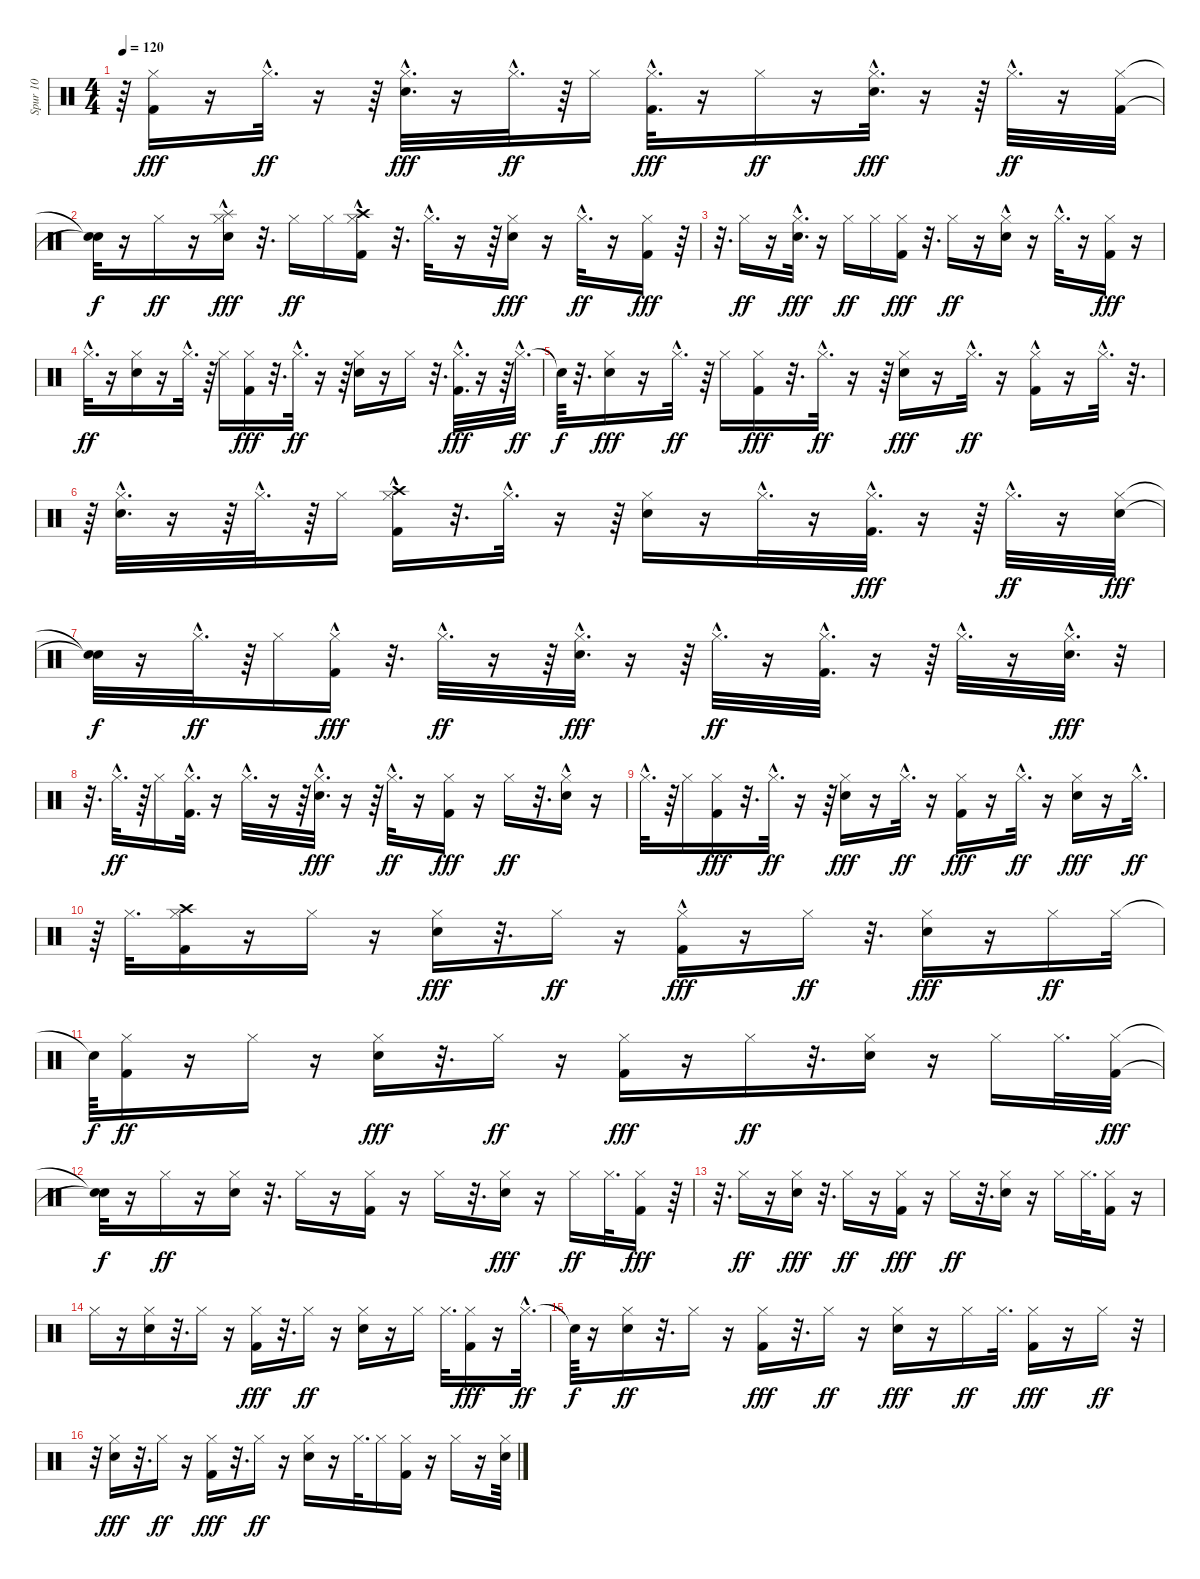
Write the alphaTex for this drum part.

\track ("Spur 10" "Spur 10") {instrument percussion}
\staff {score}
\articulation defaults
\ts (4 4)
\tempo 120
\clef neutral
\ks c
r.64{dy ff} ("Hi-Hat (closed)" "Kick (hit) 2").16{dy fff} r.16 "Hi-Hat (closed)"{hac}.32{d dy ff} r.16 r.64 ("Hi-Hat (closed)"{hac} "Snare (hit) 2"{hac}).32{d dy fff} r.16 "Hi-Hat (closed)"{hac}.32{d dy ff} r.64 "Hi-Hat (closed)".16 ("Hi-Hat (closed)"{hac} "Kick (hit) 2"{hac}).32{d dy fff} r.16 "Hi-Hat (closed)".16{dy ff} r.16 ("Hi-Hat (closed)"{hac} "Snare (hit) 2"{hac}).32{d dy fff} r.16 r.64 "Hi-Hat (closed)"{hac}.32{d dy ff} r.16 ("Kick (hit) 2" "Hi-Hat (closed)").32 |
("Snare (hit)"{t} "Snare (hit)"{t}).32{dy f} r.16 "Hi-Hat (closed)".16{dy ff} r.16 ("Splash (hit)"{hac} "Hi-Hat (closed)" "Snare (hit) 2").16{dy fff} r.32{d} "Hi-Hat (closed)".16{dy ff} "Hi-Hat (closed)".16 ("Kick (hit) 2" "Hi-Hat (closed)" "Crash high (hit)"{hac}).16 r.32{d} "Hi-Hat (closed)"{hac}.32{d} r.16 r.64 ("Hi-Hat (closed)" "Snare (hit) 2").16{dy fff} r.16 "Hi-Hat (closed)"{hac}.32{d dy ff} r.16 ("Hi-Hat (closed)" "Kick (hit) 2").16{dy fff} r.64 |
r.32{d} "Hi-Hat (closed)".16{dy ff} r.16 ("Hi-Hat (closed)"{hac} "Snare (hit) 2"{hac}).32{d dy fff} r.16 "Hi-Hat (closed)".16{dy ff} "Hi-Hat (closed)".16 ("Hi-Hat (closed)" "Kick (hit) 2").16{dy fff} r.32{d} "Hi-Hat (closed)".16{dy ff} r.16 ("Snare (hit) 2" "Hi-Hat (closed)"{hac}).16 r.16 "Hi-Hat (closed)"{hac}.32{d} r.16 ("Hi-Hat (closed)" "Kick (hit) 2").16{dy fff} r.16 |
"Hi-Hat (closed)"{hac}.32{d dy ff} r.16 ("Snare (hit) 2" "Hi-Hat (closed)").16 r.16 "Hi-Hat (closed)"{hac}.32{d} r.64 "Hi-Hat (closed)".16 ("Hi-Hat (closed)" "Kick (hit) 2").16{dy fff} r.32{d} "Hi-Hat (closed)"{hac}.32{d dy ff} r.16 r.64 ("Snare (hit) 2" "Hi-Hat (closed)").16 r.16 "Hi-Hat (closed)".16 r.32{d} ("Hi-Hat (closed)"{hac} "Kick (hit) 2"{hac}).32{d dy fff} r.16 r.64 "Hi-Hat (closed)"{hac}.32{d dy ff} |
"Snare (hit)"{t}.64{dy f} r.32{d} ("Hi-Hat (closed)" "Snare (hit) 2").16{dy fff} r.16 "Hi-Hat (closed)"{hac}.32{d dy ff} r.64 "Hi-Hat (closed)".16 ("Hi-Hat (closed)" "Kick (hit) 2").16{dy fff} r.32{d} "Hi-Hat (closed)"{hac}.32{d dy ff} r.16 r.64 ("Hi-Hat (closed)" "Snare (hit) 2").16{dy fff} r.16 "Hi-Hat (closed)"{hac}.32{d dy ff} r.16 ("Kick (hit) 2"{hac} "Hi-Hat (closed)").16 r.16 "Hi-Hat (closed)"{hac}.32{d} r.32{d} |
r.64 ("Snare (hit) 2"{hac} "Hi-Hat (closed)"{hac}).32{d} r.16 r.64 "Hi-Hat (closed)"{hac}.32{d} r.64 "Hi-Hat (closed)".16 ("Kick (hit) 2"{hac} "Hi-Hat (closed)" "Crash high (hit)").16 r.32{d} "Hi-Hat (closed)"{hac}.32{d} r.16 r.64 ("Snare (hit) 2" "Hi-Hat (closed)").16 r.16 "Hi-Hat (closed)"{hac}.32{d} r.16 ("Hi-Hat (closed)"{hac} "Kick (hit) 2"{hac}).32{d dy fff} r.16 r.64 "Hi-Hat (closed)"{hac}.32{d dy ff} r.16 ("Hi-Hat (closed)" "Snare (hit) 2").32{dy fff} |
("Snare (hit)"{t} "Snare (hit)"{t}).32{dy f} r.16 "Hi-Hat (closed)"{hac}.32{d dy ff} r.64 "Hi-Hat (closed)".16 ("Hi-Hat (closed)"{hac} "Kick (hit) 2").16{dy fff} r.32{d} "Hi-Hat (closed)"{hac}.32{d dy ff} r.16 r.64 ("Hi-Hat (closed)"{hac} "Snare (hit) 2"{hac}).32{d dy fff} r.16 r.64 "Hi-Hat (closed)"{hac}.32{d dy ff} r.16 ("Kick (hit) 2"{hac} "Hi-Hat (closed)"{hac}).32{d} r.16 r.64 "Hi-Hat (closed)"{hac}.32{d} r.16 ("Hi-Hat (closed)"{hac} "Snare (hit) 2"{hac}).32{d dy fff} r.32 |
r.32{d} "Hi-Hat (closed)"{hac}.32{d dy ff} r.64 "Hi-Hat (closed)".16 ("Kick (hit) 2"{hac} "Hi-Hat (closed)"{hac}).32{d} r.16 "Hi-Hat (closed)"{hac}.32{d} r.16 r.64 ("Hi-Hat (closed)"{hac} "Snare (hit) 2"{hac}).32{d dy fff} r.16 r.64 "Hi-Hat (closed)"{hac}.32{d dy ff} r.16 ("Hi-Hat (closed)" "Kick (hit) 2").16{dy fff} r.16 "Hi-Hat (closed)".16{dy ff} r.32{d} ("Snare (hit) 2"{hac} "Hi-Hat (closed)").16 r.16 |
"Hi-Hat (closed)"{hac}.32{d} r.64 "Hi-Hat (closed)".16 ("Hi-Hat (closed)" "Kick (hit) 2").16{dy fff} r.32{d} "Hi-Hat (closed)"{hac}.32{d dy ff} r.16 r.64 ("Hi-Hat (closed)" "Snare (hit) 2").16{dy fff} r.16 "Hi-Hat (closed)"{hac}.32{d dy ff} r.16 ("Hi-Hat (closed)" "Kick (hit) 2").16{dy fff} r.16 "Hi-Hat (closed)"{hac}.32{d dy ff} r.16 ("Hi-Hat (closed)" "Snare (hit) 2").16{dy fff} r.16 "Hi-Hat (closed)"{hac}.32{d dy ff} |
r.64 "Hi-Hat (closed)".32{d} ("Hi-Hat (closed)" "Kick (hit) 2" "Crash high (hit)").16 r.16 "Hi-Hat (closed)".16 r.16 ("Hi-Hat (closed)" "Snare (hit) 2").16{dy fff} r.32{d} "Hi-Hat (closed)".16{dy ff} r.16 ("Hi-Hat (closed)"{hac} "Kick (hit) 2").16{dy fff} r.16 "Hi-Hat (closed)".16{dy ff} r.32{d} ("Hi-Hat (closed)" "Snare (hit) 2").16{dy fff} r.16 "Hi-Hat (closed)".16{dy ff} "Hi-Hat (closed)".32 |
"Snare (hit)"{t}.64{dy f} ("Kick (hit) 2" "Hi-Hat (closed)").16{dy ff} r.16 "Hi-Hat (closed)".16 r.16 ("Hi-Hat (closed)" "Snare (hit) 2").16{dy fff} r.32{d} "Hi-Hat (closed)".16{dy ff} r.16 ("Hi-Hat (closed)" "Kick (hit) 2").16{dy fff} r.16 "Hi-Hat (closed)".16{dy ff} r.32{d} ("Snare (hit) 2" "Hi-Hat (closed)").16 r.16 "Hi-Hat (closed)".16 "Hi-Hat (closed)".32{d} ("Hi-Hat (closed)" "Kick (hit) 2").32{dy fff} |
("Snare (hit)"{t} "Snare (hit)"{t}).32{dy f} r.16 "Hi-Hat (closed)".16{dy ff} r.16 ("Snare (hit) 2" "Hi-Hat (closed)").16 r.32{d} "Hi-Hat (closed)".16 r.16 ("Kick (hit) 2" "Hi-Hat (closed)").16 r.16 "Hi-Hat (closed)".16 r.32{d} ("Hi-Hat (closed)" "Snare (hit) 2").16{dy fff} r.16 "Hi-Hat (closed)".16{dy ff} "Hi-Hat (closed)".32{d} ("Hi-Hat (closed)" "Kick (hit) 2").16{dy fff} r.64 |
r.32{d} "Hi-Hat (closed)".16{dy ff} r.16 ("Hi-Hat (closed)" "Snare (hit) 2").16{dy fff} r.32{d} "Hi-Hat (closed)".16{dy ff} r.16 ("Hi-Hat (closed)" "Kick (hit) 2").16{dy fff} r.16 "Hi-Hat (closed)".16{dy ff} r.32{d} ("Snare (hit) 2" "Hi-Hat (closed)").16 r.16 "Hi-Hat (closed)".16 "Hi-Hat (closed)".32{d} ("Kick (hit) 2" "Hi-Hat (closed)").16 r.16 |
"Hi-Hat (closed)".16 r.16 ("Snare (hit) 2" "Hi-Hat (closed)").16 r.32{d} "Hi-Hat (closed)".16 r.16 ("Hi-Hat (closed)" "Kick (hit) 2").16{dy fff} r.32{d} "Hi-Hat (closed)".16{dy ff} r.16 ("Snare (hit) 2" "Hi-Hat (closed)").16 r.16 "Hi-Hat (closed)".16 "Hi-Hat (closed)".32{d} ("Hi-Hat (closed)" "Kick (hit) 2").16{dy fff} r.16 "Hi-Hat (closed)"{hac}.32{d dy ff} |
"Snare (hit)"{t}.64{dy f} r.16 ("Snare (hit) 2" "Hi-Hat (closed)").16{dy ff} r.32{d} "Hi-Hat (closed)".16 r.16 ("Hi-Hat (closed)" "Kick (hit) 2").16{dy fff} r.32{d} "Hi-Hat (closed)".16{dy ff} r.16 ("Hi-Hat (closed)" "Snare (hit) 2").16{dy fff} r.16 "Hi-Hat (closed)".16{dy ff} "Hi-Hat (closed)".32{d} ("Hi-Hat (closed)" "Kick (hit) 2").16{dy fff} r.16 "Hi-Hat (closed)".16{dy ff} r.32 |
r.32 ("Hi-Hat (closed)" "Snare (hit) 2").16{dy fff} r.32{d} "Hi-Hat (closed)".16{dy ff} r.16 ("Hi-Hat (closed)" "Kick (hit) 2").16{dy fff} r.32{d} "Hi-Hat (closed)".16{dy ff} r.16 ("Snare (hit) 2" "Hi-Hat (closed)").16 r.16 "Hi-Hat (closed)".32{d} "Hi-Hat (closed)".16 ("Kick (hit) 2" "Hi-Hat (closed)").16 r.16 "Hi-Hat (closed)".16 r.16 ("Snare (hit) 2" "Hi-Hat (closed)").64
